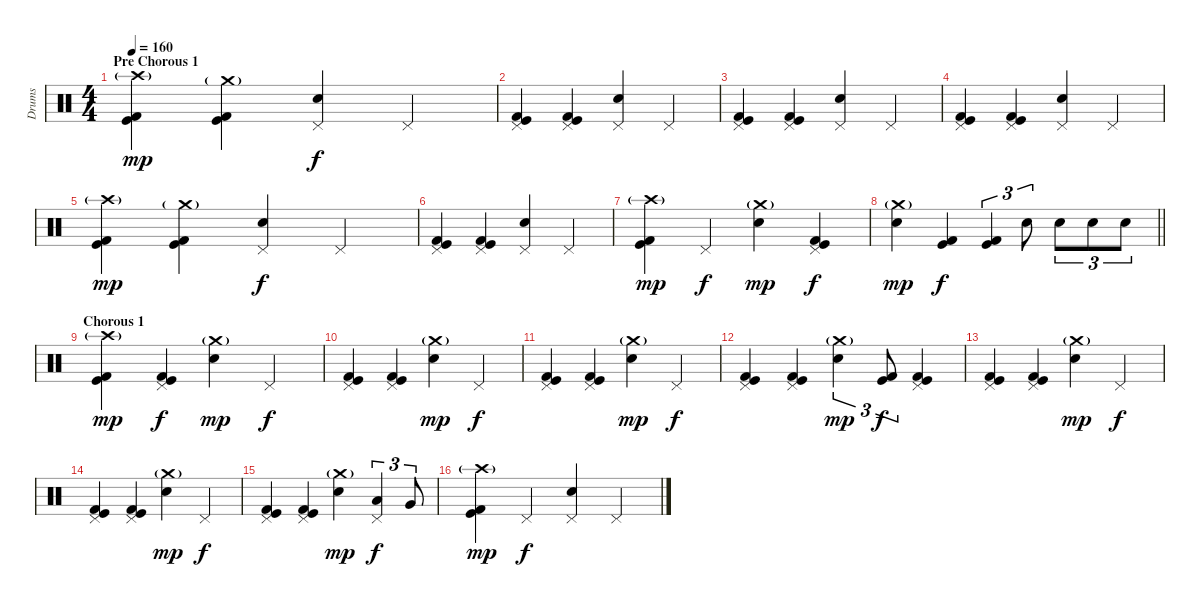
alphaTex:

\track ("Drums" "Drums") {instrument percussion}
\staff {score}
\articulation defaults
\ts (4 4)
\section ("" "Pre Chorous 1")
\tempo 160
\clef neutral
\ks c
("Crash high (hit)"{g} "Kick (hit)" "Kick (hit) 2").4{dy mp} ("Crash medium (hit)"{g} "Kick (hit)" "Kick (hit) 2").4 ("Pedal Hi-Hat (hit)" "Electric Snare (hit)").4{dy f} "Pedal Hi-Hat (hit)".4 |
("Pedal Hi-Hat (hit)" "Kick (hit)" "Kick (hit) 2").4 ("Pedal Hi-Hat (hit)" "Kick (hit)" "Kick (hit) 2").4 ("Pedal Hi-Hat (hit)" "Electric Snare (hit)").4 "Pedal Hi-Hat (hit)".4 |
("Pedal Hi-Hat (hit)" "Kick (hit)" "Kick (hit) 2").4 ("Pedal Hi-Hat (hit)" "Kick (hit)" "Kick (hit) 2").4 ("Pedal Hi-Hat (hit)" "Electric Snare (hit)").4 "Pedal Hi-Hat (hit)".4 |
("Pedal Hi-Hat (hit)" "Kick (hit)" "Kick (hit) 2").4 ("Pedal Hi-Hat (hit)" "Kick (hit)" "Kick (hit) 2").4 ("Pedal Hi-Hat (hit)" "Electric Snare (hit)").4 "Pedal Hi-Hat (hit)".4 |
("Crash high (hit)"{g} "Kick (hit)" "Kick (hit) 2").4{dy mp} ("Crash medium (hit)"{g} "Kick (hit)" "Kick (hit) 2").4 ("Pedal Hi-Hat (hit)" "Electric Snare (hit)").4{dy f} "Pedal Hi-Hat (hit)".4 |
("Pedal Hi-Hat (hit)" "Kick (hit)" "Kick (hit) 2").4 ("Pedal Hi-Hat (hit)" "Kick (hit)" "Kick (hit) 2").4 ("Pedal Hi-Hat (hit)" "Electric Snare (hit)").4 "Pedal Hi-Hat (hit)".4 |
("Crash high (hit)"{g} "Kick (hit)" "Kick (hit) 2").4{dy mp} "Pedal Hi-Hat (hit)".4{dy f} ("Crash medium (hit)"{g} "Electric Snare (hit)").4{dy mp} ("Pedal Hi-Hat (hit)" "Kick (hit)" "Kick (hit) 2").4{dy f} |
\barLineRight lightlight
("Crash medium (hit)"{g} "Electric Snare (hit)").4{dy mp} ("Kick (hit)" "Kick (hit) 2").4{dy f} ("Kick (hit)" "Kick (hit) 2").4{tu (3 2)} "Electric Snare (hit)".8{tu (3 2)} "Electric Snare (hit)".8{tu (3 2)} "Electric Snare (hit)".8{tu (3 2)} "Electric Snare (hit)".8{tu (3 2)} |
\section ("" "Chorous 1")
("Crash high (hit)"{g} "Kick (hit)" "Kick (hit) 2").4{dy mp} ("Pedal Hi-Hat (hit)" "Kick (hit)" "Kick (hit) 2").4{dy f} ("Crash medium (hit)"{g} "Electric Snare (hit)").4{dy mp} "Pedal Hi-Hat (hit)".4{dy f} |
("Pedal Hi-Hat (hit)" "Kick (hit)" "Kick (hit) 2").4 ("Pedal Hi-Hat (hit)" "Kick (hit)" "Kick (hit) 2").4 ("Crash medium (hit)"{g} "Electric Snare (hit)").4{dy mp} "Pedal Hi-Hat (hit)".4{dy f} |
("Pedal Hi-Hat (hit)" "Kick (hit)" "Kick (hit) 2").4 ("Pedal Hi-Hat (hit)" "Kick (hit)" "Kick (hit) 2").4 ("Crash medium (hit)"{g} "Electric Snare (hit)").4{dy mp} "Pedal Hi-Hat (hit)".4{dy f} |
("Pedal Hi-Hat (hit)" "Kick (hit)" "Kick (hit) 2").4 ("Pedal Hi-Hat (hit)" "Kick (hit)" "Kick (hit) 2").4 ("Crash medium (hit)"{g} "Electric Snare (hit)").4{tu (3 2) dy mp} ("Kick (hit)" "Kick (hit) 2").8{tu (3 2) dy f} ("Pedal Hi-Hat (hit)" "Kick (hit)" "Kick (hit) 2").4 |
("Pedal Hi-Hat (hit)" "Kick (hit)" "Kick (hit) 2").4 ("Pedal Hi-Hat (hit)" "Kick (hit)" "Kick (hit) 2").4 ("Crash medium (hit)"{g} "Electric Snare (hit)").4{dy mp} "Pedal Hi-Hat (hit)".4{dy f} |
("Pedal Hi-Hat (hit)" "Kick (hit)" "Kick (hit) 2").4 ("Pedal Hi-Hat (hit)" "Kick (hit)" "Kick (hit) 2").4 ("Crash medium (hit)"{g} "Electric Snare (hit)").4{dy mp} "Pedal Hi-Hat (hit)".4{dy f} |
("Pedal Hi-Hat (hit)" "Kick (hit)" "Kick (hit) 2").4 ("Pedal Hi-Hat (hit)" "Kick (hit)" "Kick (hit) 2").4 ("Crash medium (hit)"{g} "Electric Snare (hit)").4{dy mp} ("Pedal Hi-Hat (hit)" "Low Tom (hit)").4{tu (3 2) dy f} "Very Low Tom (hit)".8{tu (3 2)} |
("Crash high (hit)"{g} "Kick (hit)" "Kick (hit) 2").4{dy mp} "Pedal Hi-Hat (hit)".4{dy f} ("Pedal Hi-Hat (hit)" "Electric Snare (hit)").4 "Pedal Hi-Hat (hit)".4
